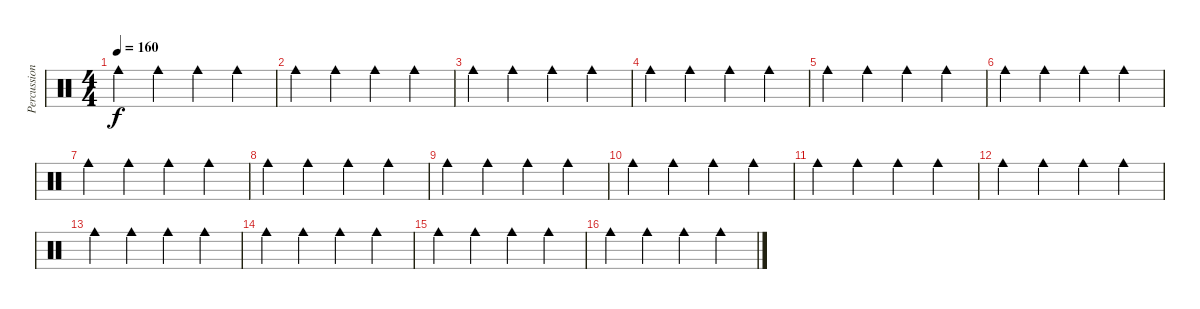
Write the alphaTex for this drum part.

\track ("Percussions" "Percussion") {instrument percussion}
\staff {score}
\articulation defaults
\ts (4 4)
\tempo 160
\clef neutral
\ks c "Cowbell medium (hit)".4{dy f} "Cowbell medium (hit)".4 "Cowbell medium (hit)".4 "Cowbell medium (hit)".4
|
"Cowbell medium (hit)".4 "Cowbell medium (hit)".4 "Cowbell medium (hit)".4 "Cowbell medium (hit)".4 |
"Cowbell medium (hit)".4 "Cowbell medium (hit)".4 "Cowbell medium (hit)".4 "Cowbell medium (hit)".4 |
"Cowbell medium (hit)".4 "Cowbell medium (hit)".4 "Cowbell medium (hit)".4 "Cowbell medium (hit)".4 |
"Cowbell medium (hit)".4 "Cowbell medium (hit)".4 "Cowbell medium (hit)".4 "Cowbell medium (hit)".4 |
"Cowbell medium (hit)".4 "Cowbell medium (hit)".4 "Cowbell medium (hit)".4 "Cowbell medium (hit)".4 |
"Cowbell medium (hit)".4 "Cowbell medium (hit)".4 "Cowbell medium (hit)".4 "Cowbell medium (hit)".4 |
"Cowbell medium (hit)".4 "Cowbell medium (hit)".4 "Cowbell medium (hit)".4 "Cowbell medium (hit)".4 |
"Cowbell medium (hit)".4 "Cowbell medium (hit)".4 "Cowbell medium (hit)".4 "Cowbell medium (hit)".4 |
"Cowbell medium (hit)".4 "Cowbell medium (hit)".4 "Cowbell medium (hit)".4 "Cowbell medium (hit)".4 |
"Cowbell medium (hit)".4 "Cowbell medium (hit)".4 "Cowbell medium (hit)".4 "Cowbell medium (hit)".4 |
"Cowbell medium (hit)".4 "Cowbell medium (hit)".4 "Cowbell medium (hit)".4 "Cowbell medium (hit)".4 |
"Cowbell medium (hit)".4 "Cowbell medium (hit)".4 "Cowbell medium (hit)".4 "Cowbell medium (hit)".4 |
"Cowbell medium (hit)".4 "Cowbell medium (hit)".4 "Cowbell medium (hit)".4 "Cowbell medium (hit)".4 |
"Cowbell medium (hit)".4 "Cowbell medium (hit)".4 "Cowbell medium (hit)".4 "Cowbell medium (hit)".4 |
"Cowbell medium (hit)".4 "Cowbell medium (hit)".4 "Cowbell medium (hit)".4 "Cowbell medium (hit)".4
